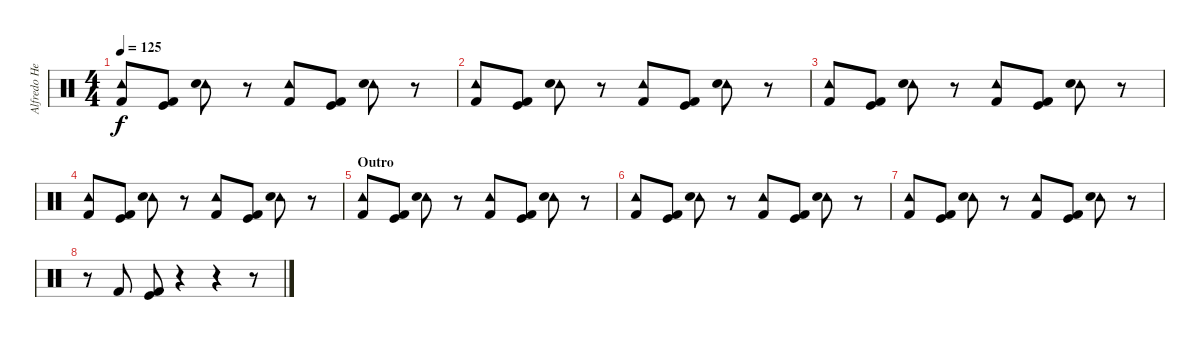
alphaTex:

\track ("Alfredo Hernandez (Drums)" "Alfredo He") {instrument percussion}
\staff {score}
\articulation defaults
\ts (4 4)
\tempo 125
\clef neutral
\ks c
("Tambourine (hit)" "Kick (hit) 2").8{dy f} ("Kick (hit)" "Kick (hit) 2").8 ("Tambourine (hit)" "Electric Snare (hit)").8 r.8 ("Tambourine (hit)" "Kick (hit) 2").8 ("Kick (hit)" "Kick (hit) 2").8 ("Tambourine (hit)" "Electric Snare (hit)").8 r.8 |
("Tambourine (hit)" "Kick (hit) 2").8 ("Kick (hit)" "Kick (hit) 2").8 ("Tambourine (hit)" "Electric Snare (hit)").8 r.8 ("Tambourine (hit)" "Kick (hit) 2").8 ("Kick (hit)" "Kick (hit) 2").8 ("Tambourine (hit)" "Electric Snare (hit)").8 r.8 |
("Tambourine (hit)" "Kick (hit) 2").8 ("Kick (hit)" "Kick (hit) 2").8 ("Tambourine (hit)" "Electric Snare (hit)").8 r.8 ("Tambourine (hit)" "Kick (hit) 2").8 ("Kick (hit)" "Kick (hit) 2").8 ("Tambourine (hit)" "Electric Snare (hit)").8 r.8 |
("Tambourine (hit)" "Kick (hit) 2").8 ("Kick (hit)" "Kick (hit) 2").8 ("Tambourine (hit)" "Electric Snare (hit)").8 r.8 ("Tambourine (hit)" "Kick (hit) 2").8 ("Kick (hit)" "Kick (hit) 2").8 ("Tambourine (hit)" "Electric Snare (hit)").8 r.8 |
\section ("" "Outro")
("Tambourine (hit)" "Kick (hit) 2").8 ("Kick (hit)" "Kick (hit) 2").8 ("Tambourine (hit)" "Electric Snare (hit)").8 r.8 ("Tambourine (hit)" "Kick (hit) 2").8 ("Kick (hit)" "Kick (hit) 2").8 ("Tambourine (hit)" "Electric Snare (hit)").8 r.8 |
("Tambourine (hit)" "Kick (hit) 2").8 ("Kick (hit)" "Kick (hit) 2").8 ("Tambourine (hit)" "Electric Snare (hit)").8 r.8 ("Tambourine (hit)" "Kick (hit) 2").8 ("Kick (hit)" "Kick (hit) 2").8 ("Tambourine (hit)" "Electric Snare (hit)").8 r.8 |
("Tambourine (hit)" "Kick (hit) 2").8 ("Kick (hit)" "Kick (hit) 2").8 ("Tambourine (hit)" "Electric Snare (hit)").8 r.8 ("Tambourine (hit)" "Kick (hit) 2").8 ("Kick (hit)" "Kick (hit) 2").8 ("Tambourine (hit)" "Electric Snare (hit)").8 r.8 |
r.8 "Kick (hit) 2".8 ("Kick (hit)" "Kick (hit) 2").8 r.4 r.4 r.8
